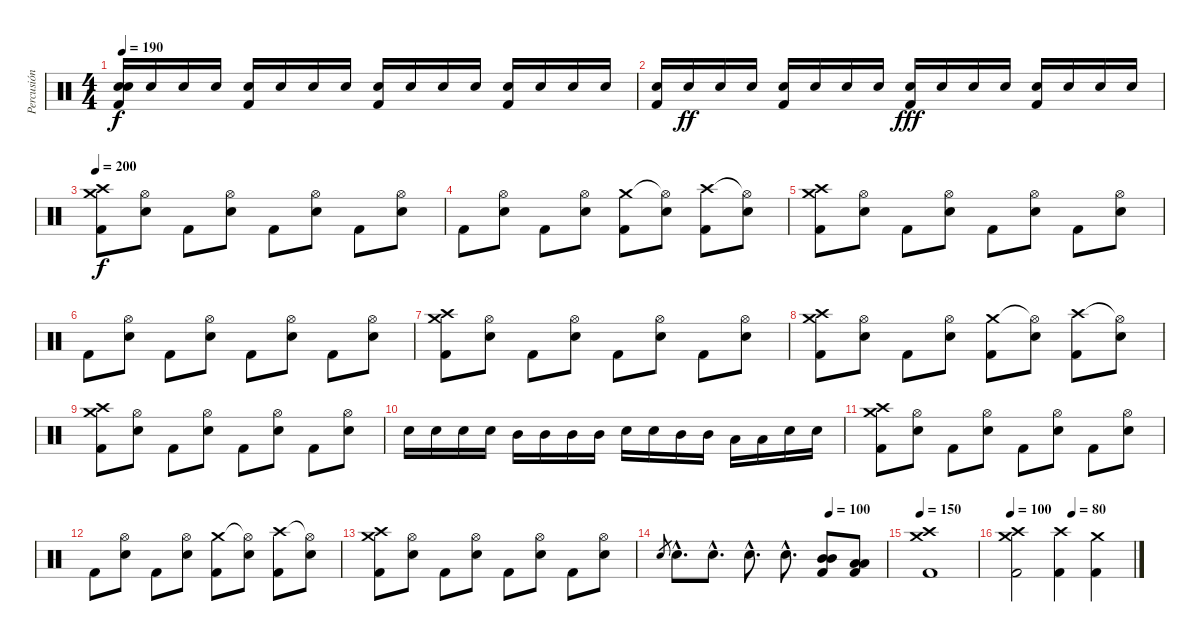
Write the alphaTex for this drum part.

\track ("Percusión" "Percusión") {instrument percussion}
\staff {score}
\articulation defaults
\ts (4 4)
\tempo 190
\clef neutral
\ks c
("Electric Snare (hit)" "Electric Snare (hit)" "Kick (hit) 2").16{dy f} "Electric Snare (hit)".16 "Electric Snare (hit)".16 "Electric Snare (hit)".16 ("Electric Snare (hit)" "Kick (hit) 2").16 "Electric Snare (hit)".16 "Electric Snare (hit)".16 "Electric Snare (hit)".16 ("Electric Snare (hit)" "Kick (hit) 2").16 "Electric Snare (hit)".16 "Electric Snare (hit)".16 "Electric Snare (hit)".16 ("Electric Snare (hit)" "Kick (hit) 2").16 "Electric Snare (hit)".16 "Electric Snare (hit)".16 "Electric Snare (hit)".16 |
("Electric Snare (hit)" "Kick (hit) 2").16 "Electric Snare (hit)".16{dy ff} "Electric Snare (hit)".16 "Electric Snare (hit)".16 ("Electric Snare (hit)" "Kick (hit) 2").16 "Electric Snare (hit)".16 "Electric Snare (hit)".16 "Electric Snare (hit)".16 ("Electric Snare (hit)" "Kick (hit) 2").16{dy fff} "Electric Snare (hit)".16 "Electric Snare (hit)".16 "Electric Snare (hit)".16 ("Electric Snare (hit)" "Kick (hit) 2").16 "Electric Snare (hit)".16 "Electric Snare (hit)".16 "Electric Snare (hit)".16 |
\tempo 200
("Crash medium (hit)" "Crash high (hit)" "Kick (hit) 2").8{dy f} ("Hi-Hat (open)" "Electric Snare (hit)").8 "Kick (hit) 2".8 ("Hi-Hat (open)" "Electric Snare (hit)").8 "Kick (hit) 2".8 ("Hi-Hat (open)" "Electric Snare (hit)").8 "Kick (hit) 2".8 ("Hi-Hat (open)" "Electric Snare (hit)").8 |
"Kick (hit) 2".8 ("Hi-Hat (open)" "Electric Snare (hit)").8 "Kick (hit) 2".8 ("Hi-Hat (open)" "Electric Snare (hit)").8 ("Crash medium (hit)" "Kick (hit) 2").8 ("Hi-Hat (open)"{t} "Electric Snare (hit)").8 ("Crash high (hit)" "Kick (hit) 2").8 ("Hi-Hat (open)"{t} "Electric Snare (hit)").8 |
("Crash medium (hit)" "Crash high (hit)" "Kick (hit) 2").8 ("Hi-Hat (open)" "Electric Snare (hit)").8 "Kick (hit) 2".8 ("Hi-Hat (open)" "Electric Snare (hit)").8 "Kick (hit) 2".8 ("Hi-Hat (open)" "Electric Snare (hit)").8 "Kick (hit) 2".8 ("Hi-Hat (open)" "Electric Snare (hit)").8 |
"Kick (hit) 2".8 ("Hi-Hat (open)" "Electric Snare (hit)").8 "Kick (hit) 2".8 ("Hi-Hat (open)" "Electric Snare (hit)").8 "Kick (hit) 2".8 ("Hi-Hat (open)" "Electric Snare (hit)").8 "Kick (hit) 2".8 ("Hi-Hat (open)" "Electric Snare (hit)").8 |
("Crash medium (hit)" "Crash high (hit)" "Kick (hit) 2").8 ("Hi-Hat (open)" "Electric Snare (hit)").8 "Kick (hit) 2".8 ("Hi-Hat (open)" "Electric Snare (hit)").8 "Kick (hit) 2".8 ("Hi-Hat (open)" "Electric Snare (hit)").8 "Kick (hit) 2".8 ("Hi-Hat (open)" "Electric Snare (hit)").8 |
("Crash medium (hit)" "Crash high (hit)" "Kick (hit) 2").8 ("Hi-Hat (open)" "Electric Snare (hit)").8 "Kick (hit) 2".8 ("Hi-Hat (open)" "Electric Snare (hit)").8 ("Crash medium (hit)" "Kick (hit) 2").8 ("Hi-Hat (open)"{t} "Electric Snare (hit)").8 ("Crash high (hit)" "Kick (hit) 2").8 ("Hi-Hat (open)"{t} "Electric Snare (hit)").8 |
("Crash medium (hit)" "Crash high (hit)" "Kick (hit) 2").8 ("Hi-Hat (open)" "Electric Snare (hit)").8 "Kick (hit) 2".8 ("Hi-Hat (open)" "Electric Snare (hit)").8 "Kick (hit) 2".8 ("Hi-Hat (open)" "Electric Snare (hit)").8 "Kick (hit) 2".8 ("Hi-Hat (open)" "Electric Snare (hit)").8 |
"Electric Snare (hit)".16 "Electric Snare (hit)".16 "Electric Snare (hit)".16 "Electric Snare (hit)".16 "Mid Tom (hit)".16 "Mid Tom (hit)".16 "Mid Tom (hit)".16 "Mid Tom (hit)".16 "Electric Snare (hit)".16 "Electric Snare (hit)".16 "Mid Tom (hit)".16 "Mid Tom (hit)".16 "Low Tom (hit)".16 "Low Tom (hit)".16 "Electric Snare (hit)".16 "Electric Snare (hit)".16 |
("Crash medium (hit)" "Crash high (hit)" "Kick (hit) 2").8 ("Hi-Hat (open)" "Electric Snare (hit)").8 "Kick (hit) 2".8 ("Hi-Hat (open)" "Electric Snare (hit)").8 "Kick (hit) 2".8 ("Hi-Hat (open)" "Electric Snare (hit)").8 "Kick (hit) 2".8 ("Hi-Hat (open)" "Electric Snare (hit)").8 |
"Kick (hit) 2".8 ("Hi-Hat (open)" "Electric Snare (hit)").8 "Kick (hit) 2".8 ("Hi-Hat (open)" "Electric Snare (hit)").8 ("Crash medium (hit)" "Kick (hit) 2").8 ("Hi-Hat (open)"{t} "Electric Snare (hit)").8 ("Crash high (hit)" "Kick (hit) 2").8 ("Hi-Hat (open)"{t} "Electric Snare (hit)").8 |
("Crash medium (hit)" "Crash high (hit)" "Kick (hit) 2").8 ("Hi-Hat (open)" "Electric Snare (hit)").8 "Kick (hit) 2".8 ("Hi-Hat (open)" "Electric Snare (hit)").8 "Kick (hit) 2".8 ("Hi-Hat (open)" "Electric Snare (hit)").8 "Kick (hit) 2".8 ("Hi-Hat (open)" "Electric Snare (hit)").8 |
\tempo (100 0.75)
"Electric Snare (hit)".8{gr} "Electric Snare (hit)"{hac}.8{d} "Electric Snare (hit)"{hac}.8{d} "Electric Snare (hit)"{hac}.8{d} "Electric Snare (hit)"{hac}.8{d} ("Mid Tom (hit)" "Mid Tom (hit)" "Kick (hit) 2").8 ("Low Tom (hit)" "Low Tom (hit)" "Kick (hit) 2").8 |
\tempo 150
("Crash medium (hit)" "Crash high (hit)" "Kick (hit) 2").1 |
\tempo 100
\tempo (80 0.5)
("Crash medium (hit)" "Crash high (hit)" "Kick (hit) 2").2 ("Crash high (hit)" "Kick (hit) 2").4 ("Crash medium (hit)" "Kick (hit) 2").4
